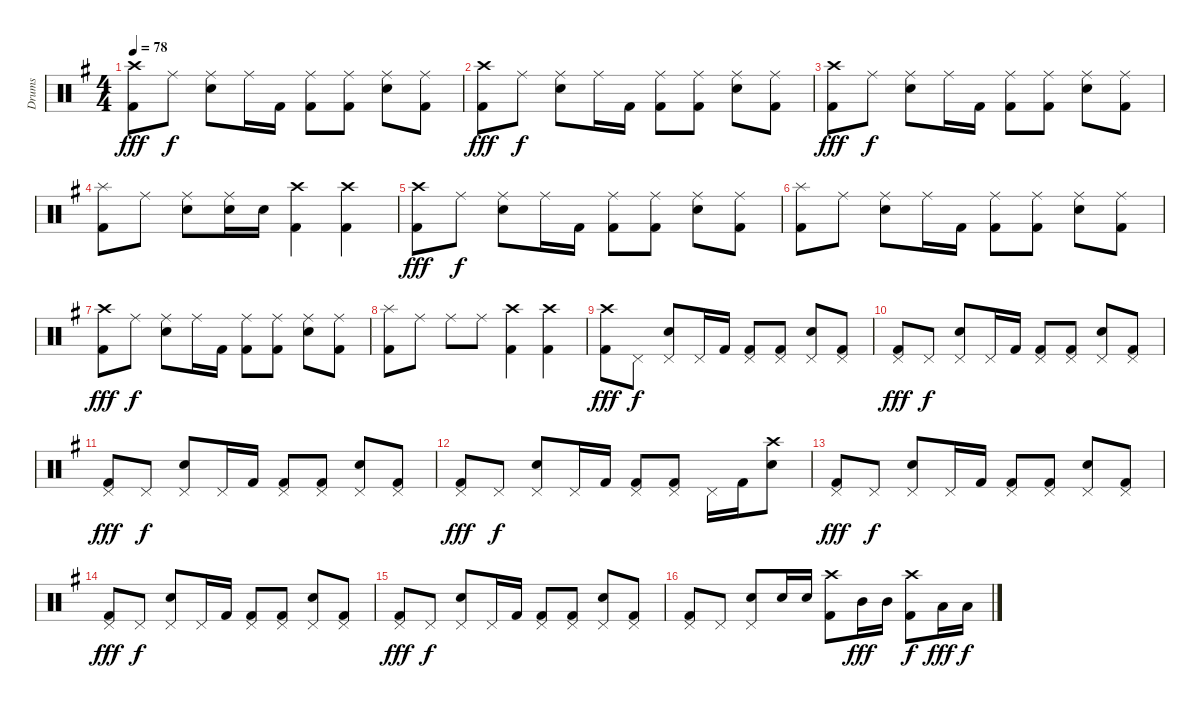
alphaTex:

\track ("Drums" "Drums") {instrument percussion}
\staff {score}
\articulation defaults
\ts (4 4)
\tempo 78
\clef neutral
\ks g
("Crash high (hit)" "Kick (hit) 2").8{dy fff} "Ride (middle)".8{dy f} ("Ride (middle)" "Snare (hit) 2").8 "Ride (middle)".16 "Kick (hit) 2".16 ("Ride (middle)" "Kick (hit) 2").8 ("Ride (middle)" "Kick (hit) 2").8 ("Ride (middle)" "Snare (hit) 2").8 ("Ride (middle)" "Kick (hit) 2").8 |
("Crash high (hit)" "Kick (hit) 2").8{dy fff} "Ride (middle)".8{dy f} ("Ride (middle)" "Snare (hit) 2").8 "Ride (middle)".16 "Kick (hit) 2".16 ("Ride (middle)" "Kick (hit) 2").8 ("Ride (middle)" "Kick (hit) 2").8 ("Ride (middle)" "Snare (hit) 2").8 ("Ride (middle)" "Kick (hit) 2").8 |
("Crash high (hit)" "Kick (hit) 2").8{dy fff} "Ride (middle)".8{dy f} ("Ride (middle)" "Snare (hit) 2").8 "Ride (middle)".16 "Kick (hit) 2".16 ("Ride (middle)" "Kick (hit) 2").8 ("Ride (middle)" "Kick (hit) 2").8 ("Ride (middle)" "Snare (hit) 2").8 ("Ride (middle)" "Kick (hit) 2").8 |
("Splash (hit)" "Kick (hit) 2").8 "Ride (middle)".8 ("Ride (middle)" "Snare (hit) 2").8 ("Ride (middle)" "Snare (hit) 2").16 "Snare (hit) 2".16 ("Crash high (hit)" "Kick (hit) 2").4 ("Crash high (hit)" "Kick (hit) 2").4 |
("Crash high (hit)" "Kick (hit) 2").8{dy fff} "Ride (middle)".8{dy f} ("Ride (middle)" "Snare (hit) 2").8 "Ride (middle)".16 "Kick (hit) 2".16 ("Ride (middle)" "Kick (hit) 2").8 ("Ride (middle)" "Kick (hit) 2").8 ("Ride (middle)" "Snare (hit) 2").8 ("Ride (middle)" "Kick (hit) 2").8 |
("Splash (hit)" "Kick (hit) 2").8 "Ride (middle)".8 ("Ride (middle)" "Snare (hit) 2").8 "Ride (middle)".16 "Kick (hit) 2".16 ("Ride (middle)" "Kick (hit) 2").8 ("Ride (middle)" "Kick (hit) 2").8 ("Ride (middle)" "Snare (hit) 2").8 ("Ride (middle)" "Kick (hit) 2").8 |
("Crash high (hit)" "Kick (hit) 2").8{dy fff} "Ride (middle)".8{dy f} ("Ride (middle)" "Snare (hit) 2").8 "Ride (middle)".16 "Kick (hit) 2".16 ("Ride (middle)" "Kick (hit) 2").8 ("Ride (middle)" "Kick (hit) 2").8 ("Ride (middle)" "Snare (hit) 2").8 ("Ride (middle)" "Kick (hit) 2").8 |
("Splash (hit)" "Kick (hit) 2").8 "Ride (middle)".8 "Ride (middle)".8 "Ride (middle)".8 ("Crash high (hit)" "Kick (hit) 2").4 ("Crash high (hit)" "Kick (hit) 2").4 |
("Crash high (hit)" "Kick (hit) 2").8{dy fff} "Pedal Hi-Hat (hit)".8{dy f} ("Pedal Hi-Hat (hit)" "Snare (hit) 2").8 "Pedal Hi-Hat (hit)".16 "Kick (hit) 2".16 ("Pedal Hi-Hat (hit)" "Kick (hit) 2").8 ("Pedal Hi-Hat (hit)" "Kick (hit) 2").8 ("Pedal Hi-Hat (hit)" "Snare (hit) 2").8 ("Pedal Hi-Hat (hit)" "Kick (hit) 2").8 |
("Pedal Hi-Hat (hit)" "Kick (hit) 2").8{dy fff} "Pedal Hi-Hat (hit)".8{dy f} ("Pedal Hi-Hat (hit)" "Snare (hit) 2").8 "Pedal Hi-Hat (hit)".16 "Kick (hit) 2".16 ("Pedal Hi-Hat (hit)" "Kick (hit) 2").8 ("Pedal Hi-Hat (hit)" "Kick (hit) 2").8 ("Pedal Hi-Hat (hit)" "Snare (hit) 2").8 ("Pedal Hi-Hat (hit)" "Kick (hit) 2").8 |
("Pedal Hi-Hat (hit)" "Kick (hit) 2").8{dy fff} "Pedal Hi-Hat (hit)".8{dy f} ("Pedal Hi-Hat (hit)" "Snare (hit) 2").8 "Pedal Hi-Hat (hit)".16 "Kick (hit) 2".16 ("Pedal Hi-Hat (hit)" "Kick (hit) 2").8 ("Pedal Hi-Hat (hit)" "Kick (hit) 2").8 ("Pedal Hi-Hat (hit)" "Snare (hit) 2").8 ("Pedal Hi-Hat (hit)" "Kick (hit) 2").8 |
("Pedal Hi-Hat (hit)" "Kick (hit) 2").8{dy fff} "Pedal Hi-Hat (hit)".8{dy f} ("Pedal Hi-Hat (hit)" "Snare (hit) 2").8 "Pedal Hi-Hat (hit)".16 "Kick (hit) 2".16 ("Pedal Hi-Hat (hit)" "Kick (hit) 2").8 ("Pedal Hi-Hat (hit)" "Kick (hit) 2").8 "Pedal Hi-Hat (hit)".16 "Kick (hit) 2".16 ("Crash high (hit)" "Electric Snare (hit)").8 |
("Pedal Hi-Hat (hit)" "Kick (hit) 2").8{dy fff} "Pedal Hi-Hat (hit)".8{dy f} ("Pedal Hi-Hat (hit)" "Snare (hit) 2").8 "Pedal Hi-Hat (hit)".16 "Kick (hit) 2".16 ("Pedal Hi-Hat (hit)" "Kick (hit) 2").8 ("Pedal Hi-Hat (hit)" "Kick (hit) 2").8 ("Pedal Hi-Hat (hit)" "Snare (hit) 2").8 ("Pedal Hi-Hat (hit)" "Kick (hit) 2").8 |
("Pedal Hi-Hat (hit)" "Kick (hit) 2").8{dy fff} "Pedal Hi-Hat (hit)".8{dy f} ("Pedal Hi-Hat (hit)" "Snare (hit) 2").8 "Pedal Hi-Hat (hit)".16 "Kick (hit) 2".16 ("Pedal Hi-Hat (hit)" "Kick (hit) 2").8 ("Pedal Hi-Hat (hit)" "Kick (hit) 2").8 ("Pedal Hi-Hat (hit)" "Snare (hit) 2").8 ("Pedal Hi-Hat (hit)" "Kick (hit) 2").8 |
("Pedal Hi-Hat (hit)" "Kick (hit) 2").8{dy fff} "Pedal Hi-Hat (hit)".8{dy f} ("Pedal Hi-Hat (hit)" "Snare (hit) 2").8 "Pedal Hi-Hat (hit)".16 "Kick (hit) 2".16 ("Pedal Hi-Hat (hit)" "Kick (hit) 2").8 ("Pedal Hi-Hat (hit)" "Kick (hit) 2").8 ("Pedal Hi-Hat (hit)" "Snare (hit) 2").8 ("Pedal Hi-Hat (hit)" "Kick (hit) 2").8 |
("Pedal Hi-Hat (hit)" "Kick (hit) 2").8 "Pedal Hi-Hat (hit)".8 ("Pedal Hi-Hat (hit)" "Snare (hit) 2").8 "Electric Snare (hit)".16 "Electric Snare (hit)".16 ("Crash high (hit)" "Kick (hit) 2").8 "Mid Tom (hit)".16{dy fff} "Mid Tom (hit)".16 ("Crash high (hit)" "Kick (hit) 2").8{dy f} "Low Tom (hit)".16{dy fff} "Low Tom (hit)".16{dy f}
